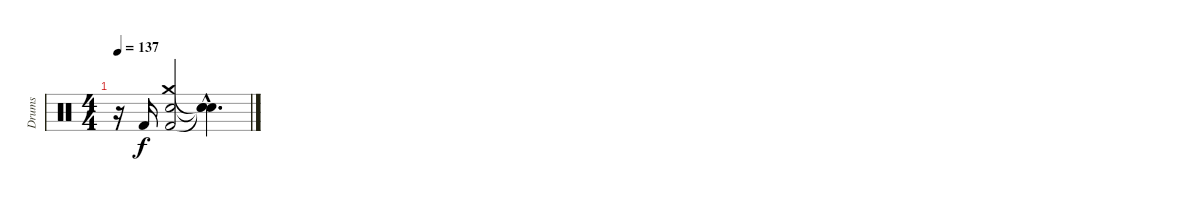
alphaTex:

\track ("Drums" "Drums") {instrument percussion}
\staff {score}
\articulation defaults
\ts (4 4)
\tempo 137
\clef neutral
\ks c
r.16{dy f} "Kick (hit) 2".16 ("Crash medium (hit)" "Snare (hit) 2" "Kick (hit) 2").2 ("Snare (hit)"{hac t} "Snare (hit)"{hac t} "Snare (hit)"{hac t}).4{d}
